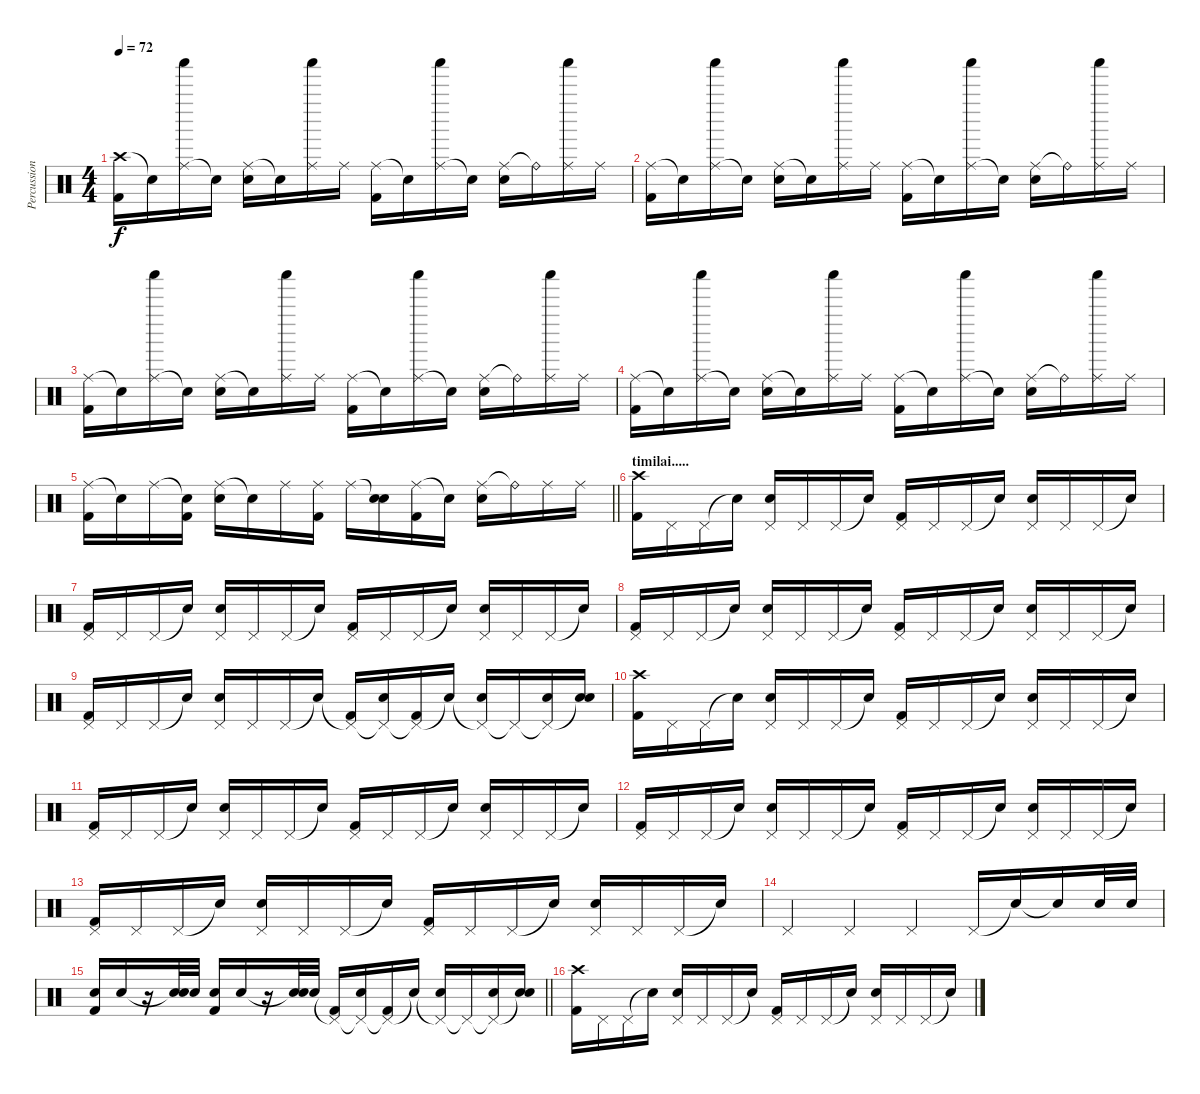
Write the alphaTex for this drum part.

\track ("Percussion" "Percussion") {instrument percussion}
\staff {score}
\articulation defaults
\ts (4 4)
\tempo 72
\clef neutral
\ks c
("Crash high (hit)" "Kick (hit) 2").16{dy f} "Snare (hit)"{t}.16 ("Ride (middle)" "Shaker (hit)").16 "Snare (hit)"{t}.16 ("Ride (middle)" "Electric Snare (hit)").16 "Snare (hit)"{t}.16 ("Ride (middle)" "Shaker (hit)").16 "Ride (middle)".16 ("Ride (middle)" "Kick (hit) 2").16 "Snare (hit)"{t}.16 ("Ride (middle)" "Shaker (hit)").16 "Snare (hit)"{t}.16 ("Ride (middle)" "Electric Snare (hit)").16 "Ride (bell)"{t}.16 ("Ride (middle)" "Shaker (hit)").16 "Ride (middle)".16 |
("Ride (middle)" "Kick (hit) 2").16 "Snare (hit)"{t}.16 ("Ride (middle)" "Shaker (hit)").16 "Snare (hit)"{t}.16 ("Ride (middle)" "Electric Snare (hit)").16 "Snare (hit)"{t}.16 ("Ride (middle)" "Shaker (hit)").16 "Ride (middle)".16 ("Ride (middle)" "Kick (hit) 2").16 "Snare (hit)"{t}.16 ("Ride (middle)" "Shaker (hit)").16 "Snare (hit)"{t}.16 ("Ride (middle)" "Electric Snare (hit)").16 "Ride (bell)"{t}.16 ("Ride (middle)" "Shaker (hit)").16 "Ride (middle)".16 |
("Ride (middle)" "Kick (hit) 2").16 "Snare (hit)"{t}.16 ("Ride (middle)" "Shaker (hit)").16 "Snare (hit)"{t}.16 ("Ride (middle)" "Electric Snare (hit)").16 "Snare (hit)"{t}.16 ("Ride (middle)" "Shaker (hit)").16 "Ride (middle)".16 ("Ride (middle)" "Kick (hit) 2").16 "Snare (hit)"{t}.16 ("Ride (middle)" "Shaker (hit)").16 "Snare (hit)"{t}.16 ("Ride (middle)" "Electric Snare (hit)").16 "Ride (bell)"{t}.16 ("Ride (middle)" "Shaker (hit)").16 "Ride (middle)".16 |
("Ride (middle)" "Kick (hit) 2").16 "Snare (hit)"{t}.16 ("Ride (middle)" "Shaker (hit)").16 "Snare (hit)"{t}.16 ("Ride (middle)" "Electric Snare (hit)").16 "Snare (hit)"{t}.16 ("Ride (middle)" "Shaker (hit)").16 "Ride (middle)".16 ("Ride (middle)" "Kick (hit) 2").16 "Snare (hit)"{t}.16 ("Ride (middle)" "Shaker (hit)").16 "Snare (hit)"{t}.16 ("Ride (middle)" "Electric Snare (hit)").16 "Ride (bell)"{t}.16 ("Ride (middle)" "Shaker (hit)").16 "Ride (middle)".16 |
\barLineRight lightlight
("Ride (middle)" "Kick (hit) 2").16 "Snare (hit)"{t}.16 "Ride (middle)".16 ("Snare (hit)"{t} "Kick (hit) 2").16 ("Ride (middle)" "Electric Snare (hit)").16 "Snare (hit)"{t}.16 "Ride (middle)".16 ("Ride (middle)" "Kick (hit) 2").16 "Ride (middle)".16 ("Snare (hit)"{t} "Electric Snare (hit)").16 ("Ride (middle)" "Kick (hit) 2").16 "Snare (hit)"{t}.16 ("Ride (middle)" "Electric Snare (hit)").16 "Ride (bell)"{t}.16 "Ride (middle)".16 "Ride (middle)".16 |
\section ("" "timilai.....")
("Crash high (hit)" "Kick (hit) 2").16 "Pedal Hi-Hat (hit)".16 "Pedal Hi-Hat (hit)".16 "Snare (hit)"{t}.16 ("Pedal Hi-Hat (hit)" "Electric Snare (hit)").16 "Pedal Hi-Hat (hit)".16 "Pedal Hi-Hat (hit)".16 "Snare (hit)"{t}.16 ("Pedal Hi-Hat (hit)" "Kick (hit) 2").16 "Pedal Hi-Hat (hit)".16 "Pedal Hi-Hat (hit)".16 "Snare (hit)"{t}.16 ("Pedal Hi-Hat (hit)" "Electric Snare (hit)").16 "Pedal Hi-Hat (hit)".16 "Pedal Hi-Hat (hit)".16 "Snare (hit)"{t}.16 |
("Pedal Hi-Hat (hit)" "Kick (hit) 2").16 "Pedal Hi-Hat (hit)".16 "Pedal Hi-Hat (hit)".16 "Snare (hit)"{t}.16 ("Pedal Hi-Hat (hit)" "Electric Snare (hit)").16 "Pedal Hi-Hat (hit)".16 "Pedal Hi-Hat (hit)".16 "Snare (hit)"{t}.16 ("Pedal Hi-Hat (hit)" "Kick (hit) 2").16 "Pedal Hi-Hat (hit)".16 "Pedal Hi-Hat (hit)".16 "Snare (hit)"{t}.16 ("Pedal Hi-Hat (hit)" "Electric Snare (hit)").16 "Pedal Hi-Hat (hit)".16 "Pedal Hi-Hat (hit)".16 "Snare (hit)"{t}.16 |
("Pedal Hi-Hat (hit)" "Kick (hit) 2").16 "Pedal Hi-Hat (hit)".16 "Pedal Hi-Hat (hit)".16 "Snare (hit)"{t}.16 ("Pedal Hi-Hat (hit)" "Electric Snare (hit)").16 "Pedal Hi-Hat (hit)".16 "Pedal Hi-Hat (hit)".16 "Snare (hit)"{t}.16 ("Pedal Hi-Hat (hit)" "Kick (hit) 2").16 "Pedal Hi-Hat (hit)".16 "Pedal Hi-Hat (hit)".16 "Snare (hit)"{t}.16 ("Pedal Hi-Hat (hit)" "Electric Snare (hit)").16 "Pedal Hi-Hat (hit)".16 "Pedal Hi-Hat (hit)".16 "Snare (hit)"{t}.16 |
("Pedal Hi-Hat (hit)" "Kick (hit) 2").16 "Pedal Hi-Hat (hit)".16 "Pedal Hi-Hat (hit)".16 "Snare (hit)"{t}.16 ("Pedal Hi-Hat (hit)" "Electric Snare (hit)").16 "Pedal Hi-Hat (hit)".16 "Pedal Hi-Hat (hit)".16 "Snare (hit)"{t}.16 ("Pedal Hi-Hat (hit)"{t} "Kick (hit) 2").16 ("Pedal Hi-Hat (hit)"{t} "Electric Snare (hit)").16 ("Pedal Hi-Hat (hit)"{t} "Kick (hit) 2").16 "Snare (hit)"{t}.16 ("Pedal Hi-Hat (hit)"{t} "Electric Snare (hit)").16 "Pedal Hi-Hat (hit)"{t}.16 ("Pedal Hi-Hat (hit)"{t} "Electric Snare (hit)").16 ("Snare (hit)"{t} "Electric Snare (hit)").16 |
("Crash high (hit)" "Kick (hit) 2").16 "Pedal Hi-Hat (hit)".16 "Pedal Hi-Hat (hit)".16 "Snare (hit)"{t}.16 ("Pedal Hi-Hat (hit)" "Electric Snare (hit)").16 "Pedal Hi-Hat (hit)".16 "Pedal Hi-Hat (hit)".16 "Snare (hit)"{t}.16 ("Pedal Hi-Hat (hit)" "Kick (hit) 2").16 "Pedal Hi-Hat (hit)".16 "Pedal Hi-Hat (hit)".16 "Snare (hit)"{t}.16 ("Pedal Hi-Hat (hit)" "Electric Snare (hit)").16 "Pedal Hi-Hat (hit)".16 "Pedal Hi-Hat (hit)".16 "Snare (hit)"{t}.16 |
("Pedal Hi-Hat (hit)" "Kick (hit) 2").16 "Pedal Hi-Hat (hit)".16 "Pedal Hi-Hat (hit)".16 "Snare (hit)"{t}.16 ("Pedal Hi-Hat (hit)" "Electric Snare (hit)").16 "Pedal Hi-Hat (hit)".16 "Pedal Hi-Hat (hit)".16 "Snare (hit)"{t}.16 ("Pedal Hi-Hat (hit)" "Kick (hit) 2").16 "Pedal Hi-Hat (hit)".16 "Pedal Hi-Hat (hit)".16 "Snare (hit)"{t}.16 ("Pedal Hi-Hat (hit)" "Electric Snare (hit)").16 "Pedal Hi-Hat (hit)".16 "Pedal Hi-Hat (hit)".16 "Snare (hit)"{t}.16 |
("Pedal Hi-Hat (hit)" "Kick (hit) 2").16 "Pedal Hi-Hat (hit)".16 "Pedal Hi-Hat (hit)".16 "Snare (hit)"{t}.16 ("Pedal Hi-Hat (hit)" "Electric Snare (hit)").16 "Pedal Hi-Hat (hit)".16 "Pedal Hi-Hat (hit)".16 "Snare (hit)"{t}.16 ("Pedal Hi-Hat (hit)" "Kick (hit) 2").16 "Pedal Hi-Hat (hit)".16 "Pedal Hi-Hat (hit)".16 "Snare (hit)"{t}.16 ("Pedal Hi-Hat (hit)" "Electric Snare (hit)").16 "Pedal Hi-Hat (hit)".16 "Pedal Hi-Hat (hit)".16 "Snare (hit)"{t}.16 |
("Pedal Hi-Hat (hit)" "Kick (hit) 2").16 "Pedal Hi-Hat (hit)".16 "Pedal Hi-Hat (hit)".16 "Snare (hit)"{t}.16 ("Pedal Hi-Hat (hit)" "Electric Snare (hit)").16 "Pedal Hi-Hat (hit)".16 "Pedal Hi-Hat (hit)".16 "Snare (hit)"{t}.16 ("Pedal Hi-Hat (hit)" "Kick (hit) 2").16 "Pedal Hi-Hat (hit)".16 "Pedal Hi-Hat (hit)".16 "Snare (hit)"{t}.16 ("Pedal Hi-Hat (hit)" "Electric Snare (hit)").16 "Pedal Hi-Hat (hit)".16 "Pedal Hi-Hat (hit)".16 "Snare (hit)"{t}.16 |
"Pedal Hi-Hat (hit)".4 "Pedal Hi-Hat (hit)".4 "Pedal Hi-Hat (hit)".4 "Pedal Hi-Hat (hit)".16 "Snare (hit)"{t}.16 "Snare (hit)"{t}.16 "Electric Snare (hit)".32 "Electric Snare (hit)".32 |
\barLineRight lightlight
("Electric Snare (hit)" "Kick (hit) 2").16 "Electric Snare (hit)".16 r.16 ("Electric Snare (hit)"{t} "Electric Snare (hit)").32 "Electric Snare (hit)".32 ("Electric Snare (hit)" "Kick (hit) 2").16 "Electric Snare (hit)".16 r.16 ("Electric Snare (hit)"{t} "Electric Snare (hit)").32 "Electric Snare (hit)".32 ("Pedal Hi-Hat (hit)"{t} "Kick (hit) 2").16 ("Pedal Hi-Hat (hit)"{t} "Electric Snare (hit)").16 ("Pedal Hi-Hat (hit)"{t} "Kick (hit) 2").16 "Snare (hit)"{t}.16 ("Pedal Hi-Hat (hit)"{t} "Electric Snare (hit)").16 "Pedal Hi-Hat (hit)"{t}.16 ("Pedal Hi-Hat (hit)"{t} "Electric Snare (hit)").16 ("Snare (hit)"{t} "Electric Snare (hit)").16 |
("Crash high (hit)" "Kick (hit) 2").16 "Pedal Hi-Hat (hit)".16 "Pedal Hi-Hat (hit)".16 "Snare (hit)"{t}.16 ("Pedal Hi-Hat (hit)" "Electric Snare (hit)").16 "Pedal Hi-Hat (hit)".16 "Pedal Hi-Hat (hit)".16 "Snare (hit)"{t}.16 ("Pedal Hi-Hat (hit)" "Kick (hit) 2").16 "Pedal Hi-Hat (hit)".16 "Pedal Hi-Hat (hit)".16 "Snare (hit)"{t}.16 ("Pedal Hi-Hat (hit)" "Electric Snare (hit)").16 "Pedal Hi-Hat (hit)".16 "Pedal Hi-Hat (hit)".16 "Snare (hit)"{t}.16
